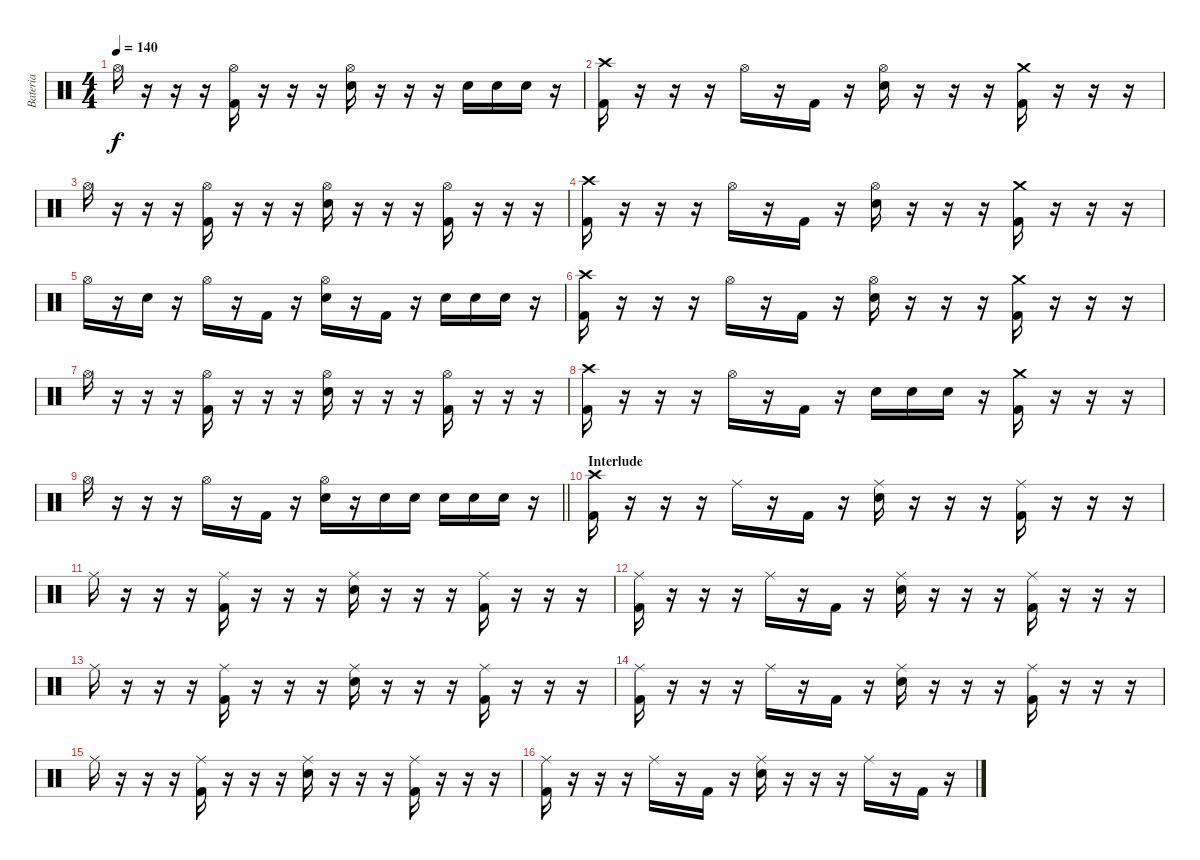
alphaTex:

\track ("Bateria" "Bateria") {instrument percussion}
\staff {score}
\articulation defaults
\ts (4 4)
\tempo 140
\clef neutral
\ks c "Hi-Hat (open)".16{dy f}
r.16 r.16 r.16 ("Hi-Hat (open)" "Kick (hit) 2").16 r.16 r.16 r.16 ("Hi-Hat (open)" "Snare (hit) 2").16 r.16 r.16 r.16 "Snare (hit) 2".16 "Snare (hit) 2".16 "Snare (hit) 2".16 r.16 |
("Crash high (hit)" "Kick (hit) 2").16 r.16 r.16 r.16 "Hi-Hat (open)".16 r.16 "Kick (hit) 2".16 r.16 ("Hi-Hat (open)" "Snare (hit) 2").16 r.16 r.16 r.16 ("Crash medium (hit)" "Kick (hit) 2").16 r.16 r.16 r.16 |
"Hi-Hat (open)".16 r.16 r.16 r.16 ("Hi-Hat (open)" "Kick (hit) 2").16 r.16 r.16 r.16 ("Hi-Hat (open)" "Snare (hit) 2").16 r.16 r.16 r.16 ("Hi-Hat (open)" "Kick (hit) 2").16 r.16 r.16 r.16 |
("Crash high (hit)" "Kick (hit) 2").16 r.16 r.16 r.16 "Hi-Hat (open)".16 r.16 "Kick (hit) 2".16 r.16 ("Hi-Hat (open)" "Snare (hit) 2").16 r.16 r.16 r.16 ("Crash medium (hit)" "Kick (hit) 2").16 r.16 r.16 r.16 |
"Hi-Hat (open)".16 r.16 "Snare (hit) 2".16 r.16 "Hi-Hat (open)".16 r.16 "Kick (hit) 2".16 r.16 ("Hi-Hat (open)" "Snare (hit) 2").16 r.16 "Kick (hit) 2".16 r.16 "Snare (hit) 2".16 "Snare (hit) 2".16 "Snare (hit) 2".16 r.16 |
("Crash high (hit)" "Kick (hit) 2").16 r.16 r.16 r.16 "Hi-Hat (open)".16 r.16 "Kick (hit) 2".16 r.16 ("Hi-Hat (open)" "Snare (hit) 2").16 r.16 r.16 r.16 ("Crash medium (hit)" "Kick (hit) 2").16 r.16 r.16 r.16 |
"Hi-Hat (open)".16 r.16 r.16 r.16 ("Hi-Hat (open)" "Kick (hit) 2").16 r.16 r.16 r.16 ("Hi-Hat (open)" "Snare (hit) 2").16 r.16 r.16 r.16 ("Hi-Hat (open)" "Kick (hit) 2").16 r.16 r.16 r.16 |
("Crash high (hit)" "Kick (hit) 2").16 r.16 r.16 r.16 "Hi-Hat (open)".16 r.16 "Kick (hit) 2".16 r.16 "Snare (hit) 2".16 "Snare (hit) 2".16 "Snare (hit) 2".16 r.16 ("Crash medium (hit)" "Kick (hit) 2").16 r.16 r.16 r.16 |
\barLineRight lightlight "Hi-Hat (open)".16
r.16 r.16 r.16 "Hi-Hat (open)".16 r.16 "Kick (hit) 2".16 r.16 ("Hi-Hat (open)" "Snare (hit) 2").16 r.16 "Snare (hit) 2".16 "Snare (hit) 2".16 "Snare (hit) 2".16 "Snare (hit) 2".16 "Snare (hit) 2".16 r.16 |
\section ("" "Interlude")
("Crash high (hit)" "Kick (hit) 2").16 r.16 r.16 r.16 "Ride (middle)".16 r.16 "Kick (hit) 2".16 r.16 ("Ride (middle)" "Snare (hit) 2").16 r.16 r.16 r.16 ("Ride (middle)" "Kick (hit) 2").16 r.16 r.16 r.16 |
"Ride (middle)".16 r.16 r.16 r.16 ("Ride (middle)" "Kick (hit) 2").16 r.16 r.16 r.16 ("Ride (middle)" "Snare (hit) 2").16 r.16 r.16 r.16 ("Ride (middle)" "Kick (hit) 2").16 r.16 r.16 r.16 |
("Ride (middle)" "Kick (hit) 2").16 r.16 r.16 r.16 "Ride (middle)".16 r.16 "Kick (hit) 2".16 r.16 ("Ride (middle)" "Snare (hit) 2").16 r.16 r.16 r.16 ("Ride (middle)" "Kick (hit) 2").16 r.16 r.16 r.16 |
"Ride (middle)".16 r.16 r.16 r.16 ("Ride (middle)" "Kick (hit) 2").16 r.16 r.16 r.16 ("Ride (middle)" "Snare (hit) 2").16 r.16 r.16 r.16 ("Ride (middle)" "Kick (hit) 2").16 r.16 r.16 r.16 |
("Ride (middle)" "Kick (hit) 2").16 r.16 r.16 r.16 "Ride (middle)".16 r.16 "Kick (hit) 2".16 r.16 ("Ride (middle)" "Snare (hit) 2").16 r.16 r.16 r.16 ("Ride (middle)" "Kick (hit) 2").16 r.16 r.16 r.16 |
"Ride (middle)".16 r.16 r.16 r.16 ("Ride (middle)" "Kick (hit) 2").16 r.16 r.16 r.16 ("Ride (middle)" "Snare (hit) 2").16 r.16 r.16 r.16 ("Ride (middle)" "Kick (hit) 2").16 r.16 r.16 r.16 |
("Ride (middle)" "Kick (hit) 2").16 r.16 r.16 r.16 "Ride (middle)".16 r.16 "Kick (hit) 2".16 r.16 ("Ride (middle)" "Snare (hit) 2").16 r.16 r.16 r.16 "Ride (middle)".16 r.16 "Kick (hit) 2".16 r.16
